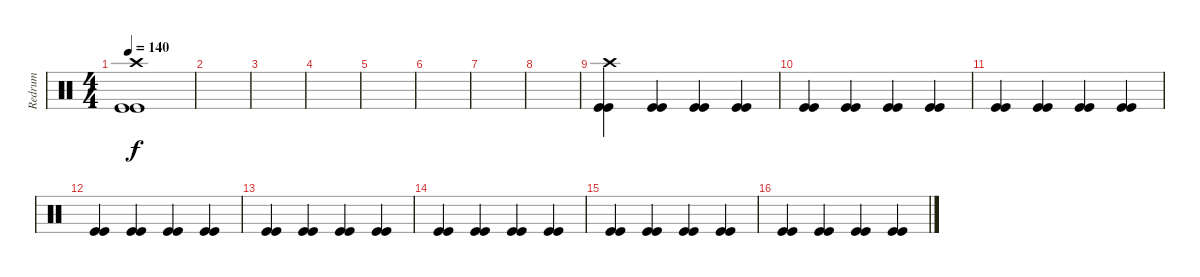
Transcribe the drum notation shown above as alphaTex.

\track ("Redrum" "Redrum") {instrument percussion}
\staff {score}
\articulation defaults
\ts (4 4)
\tempo 140
\clef neutral
\ks c
("Crash high (hit)" "Kick (hit)" "Kick (hit)").1{dy f} |
|
|
|
|
|
|
|
("Crash high (hit)" "Kick (hit)" "Kick (hit)").4 ("Kick (hit)" "Kick (hit)").4 ("Kick (hit)" "Kick (hit)").4 ("Kick (hit)" "Kick (hit)").4 |
("Kick (hit)" "Kick (hit)").4 ("Kick (hit)" "Kick (hit)").4 ("Kick (hit)" "Kick (hit)").4 ("Kick (hit)" "Kick (hit)").4 |
("Kick (hit)" "Kick (hit)").4 ("Kick (hit)" "Kick (hit)").4 ("Kick (hit)" "Kick (hit)").4 ("Kick (hit)" "Kick (hit)").4 |
("Kick (hit)" "Kick (hit)").4 ("Kick (hit)" "Kick (hit)").4 ("Kick (hit)" "Kick (hit)").4 ("Kick (hit)" "Kick (hit)").4 |
("Kick (hit)" "Kick (hit)").4 ("Kick (hit)" "Kick (hit)").4 ("Kick (hit)" "Kick (hit)").4 ("Kick (hit)" "Kick (hit)").4 |
("Kick (hit)" "Kick (hit)").4 ("Kick (hit)" "Kick (hit)").4 ("Kick (hit)" "Kick (hit)").4 ("Kick (hit)" "Kick (hit)").4 |
("Kick (hit)" "Kick (hit)").4 ("Kick (hit)" "Kick (hit)").4 ("Kick (hit)" "Kick (hit)").4 ("Kick (hit)" "Kick (hit)").4 |
("Kick (hit)" "Kick (hit)").4 ("Kick (hit)" "Kick (hit)").4 ("Kick (hit)" "Kick (hit)").4 ("Kick (hit)" "Kick (hit)").4
